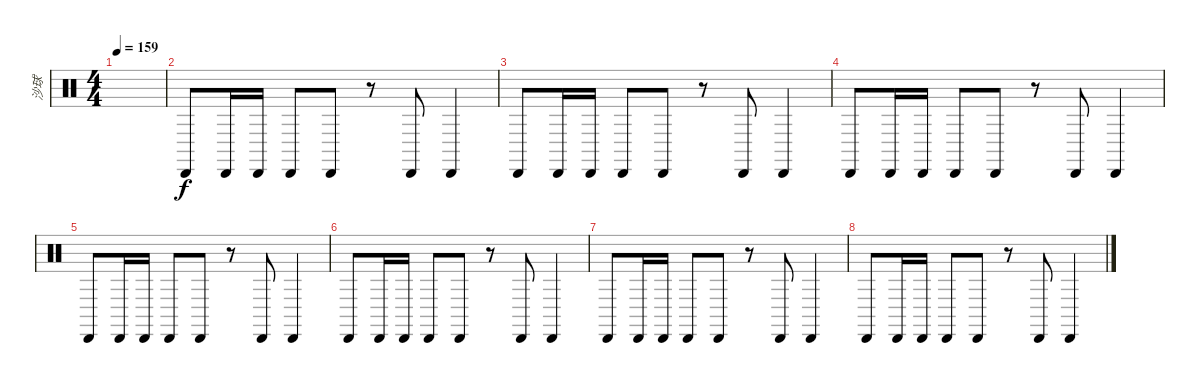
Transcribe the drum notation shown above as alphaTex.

\track ("沙球" "沙球") {instrument percussion}
\staff {score}
\articulation defaults
\ts (4 4)
\tempo 159
\clef neutral
\ks c
|
"Cabasa (hit)".8 "Cabasa (hit)".16 "Cabasa (hit)".16 "Cabasa (hit)".8 "Cabasa (hit)".8 r.8 "Cabasa (hit)".8 "Cabasa (hit)".4 |
"Cabasa (hit)".8 "Cabasa (hit)".16 "Cabasa (hit)".16 "Cabasa (hit)".8 "Cabasa (hit)".8 r.8 "Cabasa (hit)".8 "Cabasa (hit)".4 |
"Cabasa (hit)".8 "Cabasa (hit)".16 "Cabasa (hit)".16 "Cabasa (hit)".8 "Cabasa (hit)".8 r.8 "Cabasa (hit)".8 "Cabasa (hit)".4 |
"Cabasa (hit)".8 "Cabasa (hit)".16 "Cabasa (hit)".16 "Cabasa (hit)".8 "Cabasa (hit)".8 r.8 "Cabasa (hit)".8 "Cabasa (hit)".4 |
"Cabasa (hit)".8 "Cabasa (hit)".16 "Cabasa (hit)".16 "Cabasa (hit)".8 "Cabasa (hit)".8 r.8 "Cabasa (hit)".8 "Cabasa (hit)".4 |
"Cabasa (hit)".8 "Cabasa (hit)".16 "Cabasa (hit)".16 "Cabasa (hit)".8 "Cabasa (hit)".8 r.8 "Cabasa (hit)".8 "Cabasa (hit)".4 |
"Cabasa (hit)".8 "Cabasa (hit)".16 "Cabasa (hit)".16 "Cabasa (hit)".8 "Cabasa (hit)".8 r.8 "Cabasa (hit)".8 "Cabasa (hit)".4
